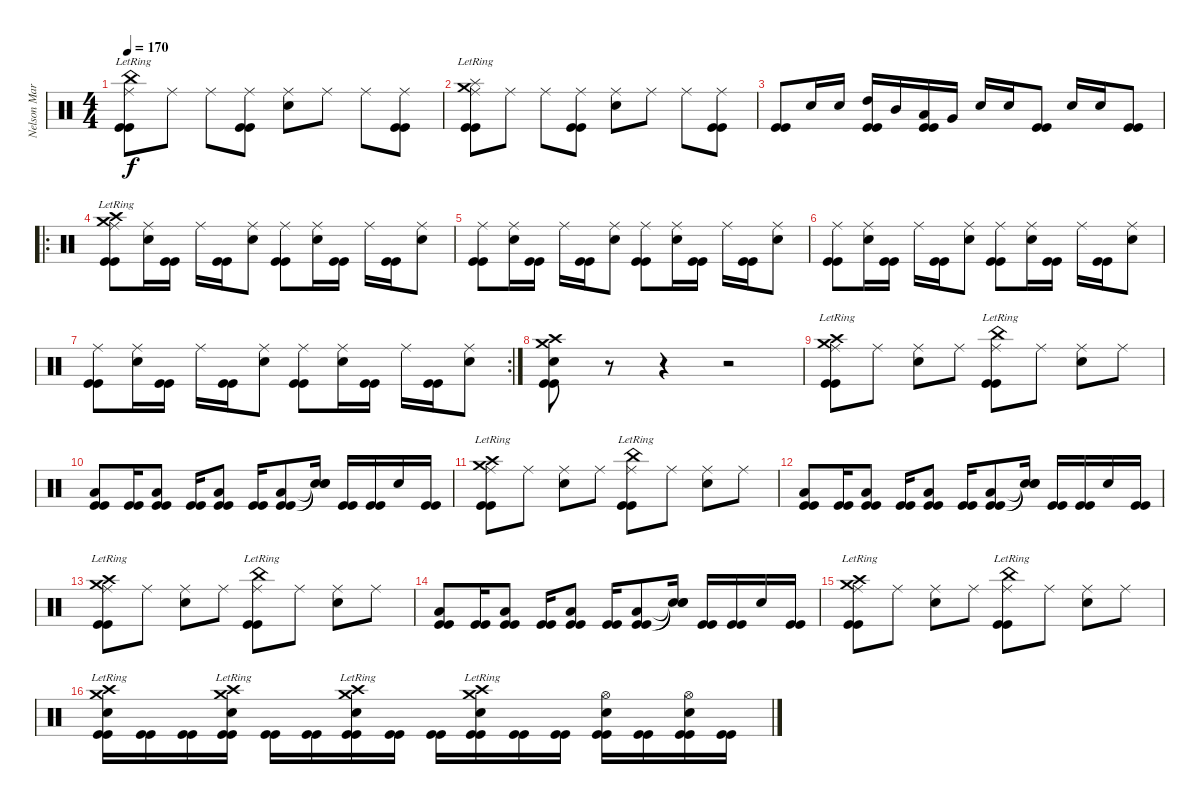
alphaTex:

\track ("Nelson Maria" "Nelson Mar") {instrument percussion}
\staff {score}
\articulation defaults
\ts (4 4)
\tempo 170
\clef neutral
\ks c
("China (hit)"{lr} "Ride (middle)" "Kick (hit)" "Kick (hit)").8{dy f} "Ride (middle)".8 "Ride (middle)".8 ("Ride (middle)" "Kick (hit)" "Kick (hit)").8 ("Snare (hit) 2" "Ride (middle)").8 "Ride (middle)".8 "Ride (middle)".8 ("Ride (middle)" "Kick (hit)" "Kick (hit)").8 |
("Splash (hit)"{lr} "Crash medium (hit)"{lr} "Ride (middle)" "Kick (hit)" "Kick (hit)").8 "Ride (middle)".8 "Ride (middle)".8 ("Ride (middle)" "Kick (hit)" "Kick (hit)").8 ("Snare (hit) 2" "Ride (middle)").8 "Ride (middle)".8 "Ride (middle)".8 ("Ride (middle)" "Kick (hit)" "Kick (hit)").8 |
("Kick (hit)" "Kick (hit)").8 "Snare (hit) 2".16 "Snare (hit) 2".16 ("High Tom (hit)" "Kick (hit)" "Kick (hit)").16 "Mid Tom (hit)".16 ("Low Tom (hit)" "Kick (hit)" "Kick (hit)").16 "Very Low Tom (hit)".16 "Snare (hit) 2".16 "Snare (hit) 2".16 ("Kick (hit)" "Kick (hit)").8 "Snare (hit) 2".16 "Snare (hit) 2".16 ("Kick (hit)" "Kick (hit)").8 |
\ro
("Crash high (hit)"{lr} "Crash medium (hit)"{lr} "Ride (middle)" "Kick (hit)" "Kick (hit)").8 ("Snare (hit) 2" "Ride (middle)").16 ("Kick (hit)" "Kick (hit)").16 "Ride (middle)".16 ("Kick (hit)" "Kick (hit)").16 ("Snare (hit) 2" "Ride (middle)").8 ("Ride (middle)" "Kick (hit)" "Kick (hit)").8 ("Snare (hit) 2" "Ride (middle)").16 ("Kick (hit)" "Kick (hit)").16 "Ride (middle)".16 ("Kick (hit)" "Kick (hit)").16 ("Snare (hit) 2" "Ride (middle)").8 |
("Ride (middle)" "Kick (hit)" "Kick (hit)").8 ("Snare (hit) 2" "Ride (middle)").16 ("Kick (hit)" "Kick (hit)").16 "Ride (middle)".16 ("Kick (hit)" "Kick (hit)").16 ("Snare (hit) 2" "Ride (middle)").8 ("Ride (middle)" "Kick (hit)" "Kick (hit)").8 ("Snare (hit) 2" "Ride (middle)").16 ("Kick (hit)" "Kick (hit)").16 "Ride (middle)".16 ("Kick (hit)" "Kick (hit)").16 ("Snare (hit) 2" "Ride (middle)").8 |
("Ride (middle)" "Kick (hit)" "Kick (hit)").8 ("Snare (hit) 2" "Ride (middle)").16 ("Kick (hit)" "Kick (hit)").16 "Ride (middle)".16 ("Kick (hit)" "Kick (hit)").16 ("Snare (hit) 2" "Ride (middle)").8 ("Ride (middle)" "Kick (hit)" "Kick (hit)").8 ("Snare (hit) 2" "Ride (middle)").16 ("Kick (hit)" "Kick (hit)").16 "Ride (middle)".16 ("Kick (hit)" "Kick (hit)").16 ("Snare (hit) 2" "Ride (middle)").8 |
\rc 2
("Ride (middle)" "Kick (hit)" "Kick (hit)").8 ("Snare (hit) 2" "Ride (middle)").16 ("Kick (hit)" "Kick (hit)").16 "Ride (middle)".16 ("Kick (hit)" "Kick (hit)").16 ("Snare (hit) 2" "Ride (middle)").8 ("Ride (middle)" "Kick (hit)" "Kick (hit)").8 ("Snare (hit) 2" "Ride (middle)").16 ("Kick (hit)" "Kick (hit)").16 "Ride (middle)".16 ("Kick (hit)" "Kick (hit)").16 ("Snare (hit) 2" "Ride (middle)").8 |
("Crash high (hit)" "Crash medium (hit)" "Snare (hit) 2" "Kick (hit)" "Kick (hit)").8 r.8 r.4 r.2 |
("Crash high (hit)"{lr} "Crash medium (hit)"{lr} "Ride (middle)" "Kick (hit)" "Kick (hit)").8 "Ride (middle)".8 ("Snare (hit) 2" "Ride (middle)").8 "Ride (middle)".8 ("China (hit)"{lr} "Ride (middle)" "Kick (hit)" "Kick (hit)").8 "Ride (middle)".8 ("Snare (hit) 2" "Ride (middle)").8 "Ride (middle)".8 |
("Low Tom (hit)" "Kick (hit)" "Kick (hit)").8 ("Kick (hit)" "Kick (hit)").16 ("Low Tom (hit)" "Kick (hit)" "Kick (hit)").8 ("Kick (hit)" "Kick (hit)").16 ("Low Tom (hit)" "Kick (hit)" "Kick (hit)").8 ("Kick (hit)" "Kick (hit)").16 ("Low Tom (hit)" "Kick (hit)" "Kick (hit)").8 ("Snare (hit)"{t} "Snare (hit)"{t} "Snare (hit)"{t}).16 ("Kick (hit)" "Kick (hit)").16 ("Kick (hit)" "Kick (hit)").16 "Snare (hit) 2".16 ("Kick (hit)" "Kick (hit)").16 |
("Crash high (hit)"{lr} "Crash medium (hit)"{lr} "Ride (middle)" "Kick (hit)" "Kick (hit)").8 "Ride (middle)".8 ("Snare (hit) 2" "Ride (middle)").8 "Ride (middle)".8 ("China (hit)"{lr} "Ride (middle)" "Kick (hit)" "Kick (hit)").8 "Ride (middle)".8 ("Snare (hit) 2" "Ride (middle)").8 "Ride (middle)".8 |
("Low Tom (hit)" "Kick (hit)" "Kick (hit)").8 ("Kick (hit)" "Kick (hit)").16 ("Low Tom (hit)" "Kick (hit)" "Kick (hit)").8 ("Kick (hit)" "Kick (hit)").16 ("Low Tom (hit)" "Kick (hit)" "Kick (hit)").8 ("Kick (hit)" "Kick (hit)").16 ("Low Tom (hit)" "Kick (hit)" "Kick (hit)").8 ("Snare (hit)"{t} "Snare (hit)"{t} "Snare (hit)"{t}).16 ("Kick (hit)" "Kick (hit)").16 ("Kick (hit)" "Kick (hit)").16 "Snare (hit) 2".16 ("Kick (hit)" "Kick (hit)").16 |
("Crash high (hit)"{lr} "Crash medium (hit)"{lr} "Ride (middle)" "Kick (hit)" "Kick (hit)").8 "Ride (middle)".8 ("Snare (hit) 2" "Ride (middle)").8 "Ride (middle)".8 ("China (hit)"{lr} "Ride (middle)" "Kick (hit)" "Kick (hit)").8 "Ride (middle)".8 ("Snare (hit) 2" "Ride (middle)").8 "Ride (middle)".8 |
("Low Tom (hit)" "Kick (hit)" "Kick (hit)").8 ("Kick (hit)" "Kick (hit)").16 ("Low Tom (hit)" "Kick (hit)" "Kick (hit)").8 ("Kick (hit)" "Kick (hit)").16 ("Low Tom (hit)" "Kick (hit)" "Kick (hit)").8 ("Kick (hit)" "Kick (hit)").16 ("Low Tom (hit)" "Kick (hit)" "Kick (hit)").8 ("Snare (hit)"{t} "Snare (hit)"{t} "Snare (hit)"{t}).16 ("Kick (hit)" "Kick (hit)").16 ("Kick (hit)" "Kick (hit)").16 "Snare (hit) 2".16 ("Kick (hit)" "Kick (hit)").16 |
("Crash high (hit)"{lr} "Crash medium (hit)"{lr} "Ride (middle)" "Kick (hit)" "Kick (hit)").8 "Ride (middle)".8 ("Snare (hit) 2" "Ride (middle)").8 "Ride (middle)".8 ("China (hit)"{lr} "Ride (middle)" "Kick (hit)" "Kick (hit)").8 "Ride (middle)".8 ("Snare (hit) 2" "Ride (middle)").8 "Ride (middle)".8 |
("Crash high (hit)"{lr} "Crash medium (hit)"{lr} "Snare (hit) 2" "Kick (hit)" "Kick (hit)").16 ("Kick (hit)" "Kick (hit)").16 ("Kick (hit)" "Kick (hit)").16 ("Crash high (hit)"{lr} "Crash medium (hit)"{lr} "Snare (hit) 2" "Kick (hit)" "Kick (hit)").16 ("Kick (hit)" "Kick (hit)").16 ("Kick (hit)" "Kick (hit)").16 ("Crash high (hit)"{lr} "Crash medium (hit)"{lr} "Snare (hit) 2" "Kick (hit)" "Kick (hit)").16 ("Kick (hit)" "Kick (hit)").16 ("Kick (hit)" "Kick (hit)").16 ("Crash high (hit)"{lr} "Crash medium (hit)"{lr} "Snare (hit) 2" "Kick (hit)" "Kick (hit)").16 ("Kick (hit)" "Kick (hit)").16 ("Kick (hit)" "Kick (hit)").16 ("Snare (hit) 2" "Hi-Hat (open)" "Kick (hit)" "Kick (hit)").16 ("Kick (hit)" "Kick (hit)").16 ("Snare (hit) 2" "Hi-Hat (open)" "Kick (hit)" "Kick (hit)").16 ("Kick (hit)" "Kick (hit)").16
